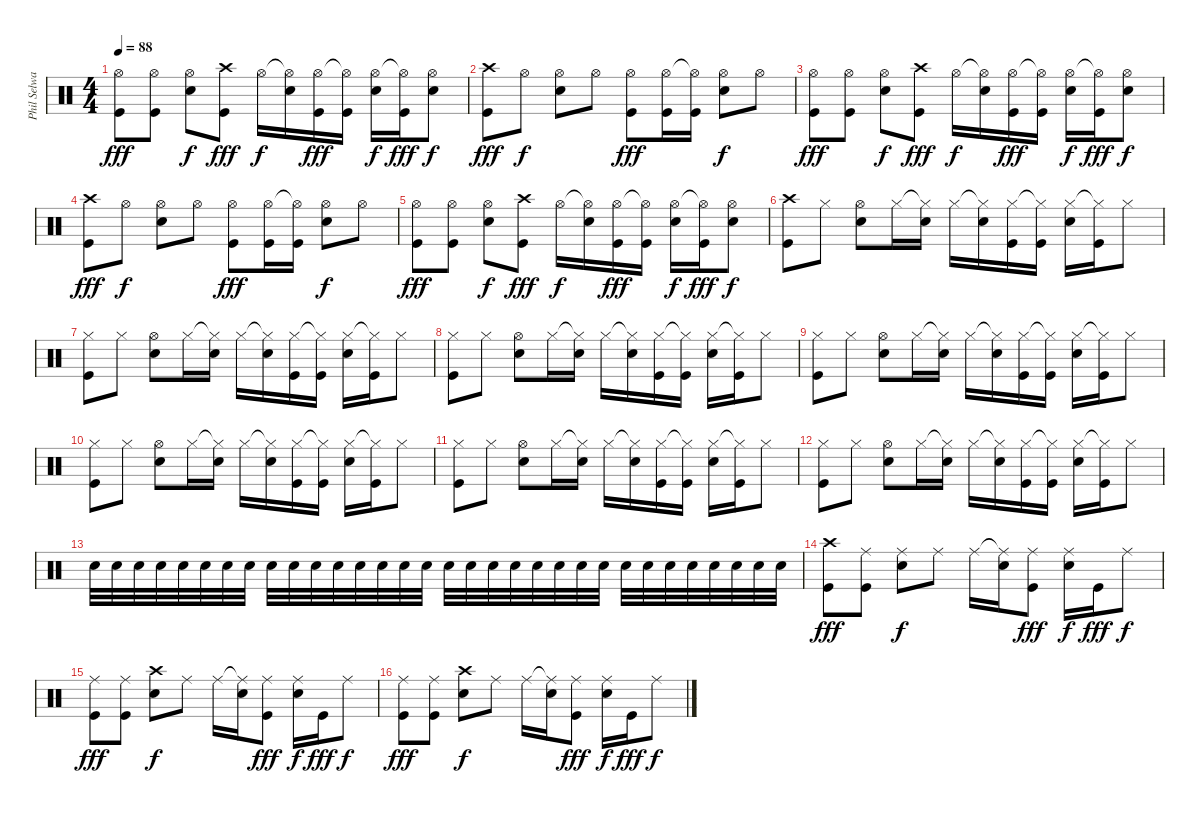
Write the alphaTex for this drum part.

\track ("Phil Selway" "Phil Selwa") {instrument percussion}
\staff {score}
\articulation defaults
\ts (4 4)
\tempo 88
\clef neutral
\ks c
("Hi-Hat (open)" "Kick (hit)").8{dy fff} ("Hi-Hat (open)" "Kick (hit)").8 ("Hi-Hat (open)" "Snare (hit) 2").8{dy f} ("Crash high (hit)" "Kick (hit)").8{dy fff} "Hi-Hat (open)".16{dy f} ("Hi-Hat (open)"{t} "Snare (hit) 2").16 ("Hi-Hat (open)" "Kick (hit)").16{dy fff} ("Hi-Hat (open)"{t} "Kick (hit)").16 ("Hi-Hat (open)" "Snare (hit) 2").16{dy f} ("Hi-Hat (open)"{t} "Kick (hit)").16{dy fff} ("Hi-Hat (open)" "Snare (hit) 2").8{dy f} |
("Crash high (hit)" "Kick (hit)").8{dy fff} "Hi-Hat (open)".8{dy f} ("Hi-Hat (open)" "Snare (hit) 2").8 "Hi-Hat (open)".8 ("Hi-Hat (open)" "Kick (hit)").8{dy fff} ("Hi-Hat (open)" "Kick (hit)").16 ("Hi-Hat (open)"{t} "Kick (hit)").16 ("Hi-Hat (open)" "Snare (hit) 2").8{dy f} "Hi-Hat (open)".8 |
("Hi-Hat (open)" "Kick (hit)").8{dy fff} ("Hi-Hat (open)" "Kick (hit)").8 ("Hi-Hat (open)" "Snare (hit) 2").8{dy f} ("Crash high (hit)" "Kick (hit)").8{dy fff} "Hi-Hat (open)".16{dy f} ("Hi-Hat (open)"{t} "Snare (hit) 2").16 ("Hi-Hat (open)" "Kick (hit)").16{dy fff} ("Hi-Hat (open)"{t} "Kick (hit)").16 ("Hi-Hat (open)" "Snare (hit) 2").16{dy f} ("Hi-Hat (open)"{t} "Kick (hit)").16{dy fff} ("Hi-Hat (open)" "Snare (hit) 2").8{dy f} |
("Crash high (hit)" "Kick (hit)").8{dy fff} "Hi-Hat (open)".8{dy f} ("Hi-Hat (open)" "Snare (hit) 2").8 "Hi-Hat (open)".8 ("Hi-Hat (open)" "Kick (hit)").8{dy fff} ("Hi-Hat (open)" "Kick (hit)").16 ("Hi-Hat (open)"{t} "Kick (hit)").16 ("Hi-Hat (open)" "Snare (hit) 2").8{dy f} "Hi-Hat (open)".8 |
("Hi-Hat (open)" "Kick (hit)").8{dy fff} ("Hi-Hat (open)" "Kick (hit)").8 ("Hi-Hat (open)" "Snare (hit) 2").8{dy f} ("Crash high (hit)" "Kick (hit)").8{dy fff} "Hi-Hat (open)".16{dy f} ("Hi-Hat (open)"{t} "Snare (hit) 2").16 ("Hi-Hat (open)" "Kick (hit)").16{dy fff} ("Hi-Hat (open)"{t} "Kick (hit)").16 ("Hi-Hat (open)" "Snare (hit) 2").16{dy f} ("Hi-Hat (open)"{t} "Kick (hit)").16{dy fff} ("Hi-Hat (open)" "Snare (hit) 2").8{dy f} |
("Crash high (hit)" "Kick (hit)").8 "Hi-Hat (closed)".8 ("Hi-Hat (open)" "Snare (hit) 2").8 "Hi-Hat (closed)".16 ("Hi-Hat (closed)"{t} "Snare (hit) 2").16 "Hi-Hat (closed)".16 ("Hi-Hat (closed)"{t} "Snare (hit) 2").16 ("Hi-Hat (closed)" "Kick (hit)").16 ("Hi-Hat (closed)"{t} "Kick (hit)").16 ("Hi-Hat (closed)" "Snare (hit) 2").16 ("Hi-Hat (closed)"{t} "Kick (hit)").16 "Hi-Hat (closed)".8 |
("Hi-Hat (closed)" "Kick (hit)").8 "Hi-Hat (closed)".8 ("Hi-Hat (open)" "Snare (hit) 2").8 "Hi-Hat (closed)".16 ("Hi-Hat (closed)"{t} "Snare (hit) 2").16 "Hi-Hat (closed)".16 ("Hi-Hat (closed)"{t} "Snare (hit) 2").16 ("Hi-Hat (closed)" "Kick (hit)").16 ("Hi-Hat (closed)"{t} "Kick (hit)").16 ("Hi-Hat (closed)" "Snare (hit) 2").16 ("Hi-Hat (closed)"{t} "Kick (hit)").16 "Hi-Hat (closed)".8 |
("Hi-Hat (closed)" "Kick (hit)").8 "Hi-Hat (closed)".8 ("Hi-Hat (open)" "Snare (hit) 2").8 "Hi-Hat (closed)".16 ("Hi-Hat (closed)"{t} "Snare (hit) 2").16 "Hi-Hat (closed)".16 ("Hi-Hat (closed)"{t} "Snare (hit) 2").16 ("Hi-Hat (closed)" "Kick (hit)").16 ("Hi-Hat (closed)"{t} "Kick (hit)").16 ("Hi-Hat (closed)" "Snare (hit) 2").16 ("Hi-Hat (closed)"{t} "Kick (hit)").16 "Hi-Hat (closed)".8 |
("Hi-Hat (closed)" "Kick (hit)").8 "Hi-Hat (closed)".8 ("Hi-Hat (open)" "Snare (hit) 2").8 "Hi-Hat (closed)".16 ("Hi-Hat (closed)"{t} "Snare (hit) 2").16 "Hi-Hat (closed)".16 ("Hi-Hat (closed)"{t} "Snare (hit) 2").16 ("Hi-Hat (closed)" "Kick (hit)").16 ("Hi-Hat (closed)"{t} "Kick (hit)").16 ("Hi-Hat (closed)" "Snare (hit) 2").16 ("Hi-Hat (closed)"{t} "Kick (hit)").16 "Hi-Hat (closed)".8 |
("Hi-Hat (closed)" "Kick (hit)").8 "Hi-Hat (closed)".8 ("Hi-Hat (open)" "Snare (hit) 2").8 "Hi-Hat (closed)".16 ("Hi-Hat (closed)"{t} "Snare (hit) 2").16 "Hi-Hat (closed)".16 ("Hi-Hat (closed)"{t} "Snare (hit) 2").16 ("Hi-Hat (closed)" "Kick (hit)").16 ("Hi-Hat (closed)"{t} "Kick (hit)").16 ("Hi-Hat (closed)" "Snare (hit) 2").16 ("Hi-Hat (closed)"{t} "Kick (hit)").16 "Hi-Hat (closed)".8 |
("Hi-Hat (closed)" "Kick (hit)").8 "Hi-Hat (closed)".8 ("Hi-Hat (open)" "Snare (hit) 2").8 "Hi-Hat (closed)".16 ("Hi-Hat (closed)"{t} "Snare (hit) 2").16 "Hi-Hat (closed)".16 ("Hi-Hat (closed)"{t} "Snare (hit) 2").16 ("Hi-Hat (closed)" "Kick (hit)").16 ("Hi-Hat (closed)"{t} "Kick (hit)").16 ("Hi-Hat (closed)" "Snare (hit) 2").16 ("Hi-Hat (closed)"{t} "Kick (hit)").16 "Hi-Hat (closed)".8 |
("Hi-Hat (closed)" "Kick (hit)").8 "Hi-Hat (closed)".8 ("Hi-Hat (open)" "Snare (hit) 2").8 "Hi-Hat (closed)".16 ("Hi-Hat (closed)"{t} "Snare (hit) 2").16 "Hi-Hat (closed)".16 ("Hi-Hat (closed)"{t} "Snare (hit) 2").16 ("Hi-Hat (closed)" "Kick (hit)").16 ("Hi-Hat (closed)"{t} "Kick (hit)").16 ("Hi-Hat (closed)" "Snare (hit) 2").16 ("Hi-Hat (closed)"{t} "Kick (hit)").16 "Hi-Hat (closed)".8 |
"Snare (hit) 2".32{volume 14} "Snare (hit) 2".32 "Snare (hit) 2".32 "Snare (hit) 2".32 "Snare (hit) 2".32 "Snare (hit) 2".32 "Snare (hit) 2".32 "Snare (hit) 2".32 "Snare (hit) 2".32 "Snare (hit) 2".32 "Snare (hit) 2".32 "Snare (hit) 2".32 "Snare (hit) 2".32 "Snare (hit) 2".32 "Snare (hit) 2".32 "Snare (hit) 2".32 "Snare (hit) 2".32 "Snare (hit) 2".32 "Snare (hit) 2".32 "Snare (hit) 2".32 "Snare (hit) 2".32 "Snare (hit) 2".32 "Snare (hit) 2".32 "Snare (hit) 2".32 "Snare (hit) 2".32 "Snare (hit) 2".32 "Snare (hit) 2".32 "Snare (hit) 2".32 "Snare (hit) 2".32 "Snare (hit) 2".32 "Snare (hit) 2".32 "Snare (hit) 2".32 |
("Crash high (hit)" "Kick (hit)").8{dy fff volume 16} ("Ride (middle)" "Kick (hit)").8 ("Ride (middle)" "Snare (hit) 2").8{dy f} "Ride (middle)".8 "Ride (middle)".16 ("Ride (middle)"{t} "Snare (hit) 2").16 ("Ride (middle)" "Kick (hit)").8{dy fff} ("Ride (middle)" "Snare (hit) 2").16{dy f} "Kick (hit)".16{dy fff} "Ride (middle)".8{dy f} |
("Ride (middle)" "Kick (hit)").8{dy fff} ("Ride (middle)" "Kick (hit)").8 ("Crash high (hit)" "Snare (hit) 2").8{dy f} "Ride (middle)".8 "Ride (middle)".16 ("Ride (middle)"{t} "Snare (hit) 2").16 ("Ride (middle)" "Kick (hit)").8{dy fff} ("Ride (middle)" "Snare (hit) 2").16{dy f} "Kick (hit)".16{dy fff} "Ride (middle)".8{dy f} |
("Ride (middle)" "Kick (hit)").8{dy fff} ("Ride (middle)" "Kick (hit)").8 ("Crash high (hit)" "Snare (hit) 2").8{dy f} "Ride (middle)".8 "Ride (middle)".16 ("Ride (middle)"{t} "Snare (hit) 2").16 ("Ride (middle)" "Kick (hit)").8{dy fff} ("Ride (middle)" "Snare (hit) 2").16{dy f} "Kick (hit)".16{dy fff} "Ride (middle)".8{dy f}
